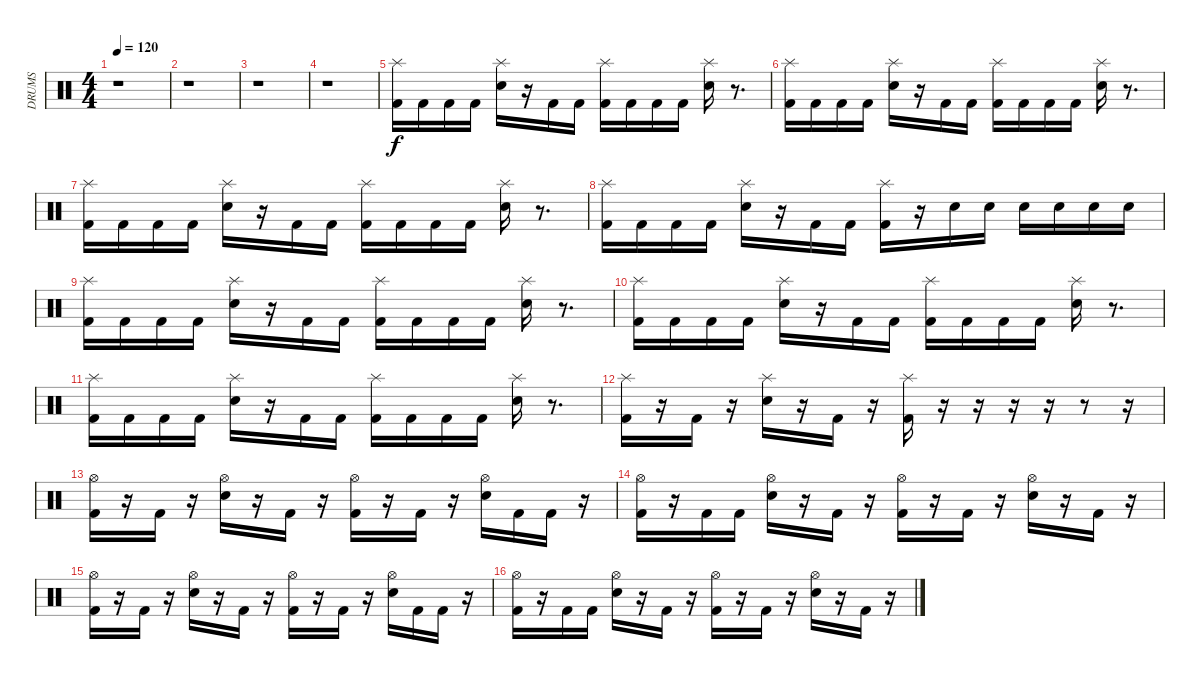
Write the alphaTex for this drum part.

\track ("DRUMS" "DRUMS") {instrument percussion}
\staff {score}
\articulation defaults
\ts (4 4)
\tempo 120
\clef neutral
\ks c
r.1{dy f} |
r.1 |
r.1 |
r.1 |
("Splash (hit)" "Kick (hit) 2").16 "Kick (hit) 2".16 "Kick (hit) 2".16 "Kick (hit) 2".16 ("Splash (hit)" "Electric Snare (hit)").16 r.16 "Kick (hit) 2".16 "Kick (hit) 2".16 ("Splash (hit)" "Kick (hit) 2").16 "Kick (hit) 2".16 "Kick (hit) 2".16 "Kick (hit) 2".16 ("Splash (hit)" "Electric Snare (hit)").16 r.8{d} |
("Splash (hit)" "Kick (hit) 2").16 "Kick (hit) 2".16 "Kick (hit) 2".16 "Kick (hit) 2".16 ("Splash (hit)" "Electric Snare (hit)").16 r.16 "Kick (hit) 2".16 "Kick (hit) 2".16 ("Splash (hit)" "Kick (hit) 2").16 "Kick (hit) 2".16 "Kick (hit) 2".16 "Kick (hit) 2".16 ("Splash (hit)" "Electric Snare (hit)").16 r.8{d} |
("Splash (hit)" "Kick (hit) 2").16 "Kick (hit) 2".16 "Kick (hit) 2".16 "Kick (hit) 2".16 ("Splash (hit)" "Electric Snare (hit)").16 r.16 "Kick (hit) 2".16 "Kick (hit) 2".16 ("Splash (hit)" "Kick (hit) 2").16 "Kick (hit) 2".16 "Kick (hit) 2".16 "Kick (hit) 2".16 ("Splash (hit)" "Electric Snare (hit)").16 r.8{d} |
("Splash (hit)" "Kick (hit) 2").16 "Kick (hit) 2".16 "Kick (hit) 2".16 "Kick (hit) 2".16 ("Splash (hit)" "Electric Snare (hit)").16 r.16 "Kick (hit) 2".16 "Kick (hit) 2".16 ("Splash (hit)" "Kick (hit) 2").16 r.16 "Electric Snare (hit)".16 "Electric Snare (hit)".16 "Electric Snare (hit)".16 "Electric Snare (hit)".16 "Electric Snare (hit)".16 "Electric Snare (hit)".16 |
("Splash (hit)" "Kick (hit) 2").16 "Kick (hit) 2".16 "Kick (hit) 2".16 "Kick (hit) 2".16 ("Splash (hit)" "Electric Snare (hit)").16 r.16 "Kick (hit) 2".16 "Kick (hit) 2".16 ("Splash (hit)" "Kick (hit) 2").16 "Kick (hit) 2".16 "Kick (hit) 2".16 "Kick (hit) 2".16 ("Splash (hit)" "Electric Snare (hit)").16 r.8{d} |
("Splash (hit)" "Kick (hit) 2").16 "Kick (hit) 2".16 "Kick (hit) 2".16 "Kick (hit) 2".16 ("Splash (hit)" "Electric Snare (hit)").16 r.16 "Kick (hit) 2".16 "Kick (hit) 2".16 ("Splash (hit)" "Kick (hit) 2").16 "Kick (hit) 2".16 "Kick (hit) 2".16 "Kick (hit) 2".16 ("Splash (hit)" "Electric Snare (hit)").16 r.8{d} |
("Splash (hit)" "Kick (hit) 2").16 "Kick (hit) 2".16 "Kick (hit) 2".16 "Kick (hit) 2".16 ("Splash (hit)" "Electric Snare (hit)").16 r.16 "Kick (hit) 2".16 "Kick (hit) 2".16 ("Splash (hit)" "Kick (hit) 2").16 "Kick (hit) 2".16 "Kick (hit) 2".16 "Kick (hit) 2".16 ("Splash (hit)" "Electric Snare (hit)").16 r.8{d} |
("Splash (hit)" "Kick (hit) 2").16 r.16 "Kick (hit) 2".16 r.16 ("Splash (hit)" "Electric Snare (hit)").16 r.16 "Kick (hit) 2".16 r.16 ("Splash (hit)" "Kick (hit) 2").16 r.16 r.16 r.16 r.16 r.8 r.16 |
("Hi-Hat (open)" "Kick (hit) 2").16 r.16 "Kick (hit) 2".16 r.16 ("Hi-Hat (open)" "Electric Snare (hit)").16 r.16 "Kick (hit) 2".16 r.16 ("Hi-Hat (open)" "Kick (hit) 2").16 r.16 "Kick (hit) 2".16 r.16 ("Hi-Hat (open)" "Electric Snare (hit)").16 "Kick (hit) 2".16 "Kick (hit) 2".16 r.16 |
("Hi-Hat (open)" "Kick (hit) 2").16 r.16 "Kick (hit) 2".16 "Kick (hit) 2".16 ("Hi-Hat (open)" "Electric Snare (hit)").16 r.16 "Kick (hit) 2".16 r.16 ("Hi-Hat (open)" "Kick (hit) 2").16 r.16 "Kick (hit) 2".16 r.16 ("Hi-Hat (open)" "Electric Snare (hit)").16 r.16 "Kick (hit) 2".16 r.16 |
("Hi-Hat (open)" "Kick (hit) 2").16 r.16 "Kick (hit) 2".16 r.16 ("Hi-Hat (open)" "Electric Snare (hit)").16 r.16 "Kick (hit) 2".16 r.16 ("Hi-Hat (open)" "Kick (hit) 2").16 r.16 "Kick (hit) 2".16 r.16 ("Hi-Hat (open)" "Electric Snare (hit)").16 "Kick (hit) 2".16 "Kick (hit) 2".16 r.16 |
("Hi-Hat (open)" "Kick (hit) 2").16 r.16 "Kick (hit) 2".16 "Kick (hit) 2".16 ("Hi-Hat (open)" "Electric Snare (hit)").16 r.16 "Kick (hit) 2".16 r.16 ("Hi-Hat (open)" "Kick (hit) 2").16 r.16 "Kick (hit) 2".16 r.16 ("Hi-Hat (open)" "Electric Snare (hit)").16 r.16 "Kick (hit) 2".16 r.16
